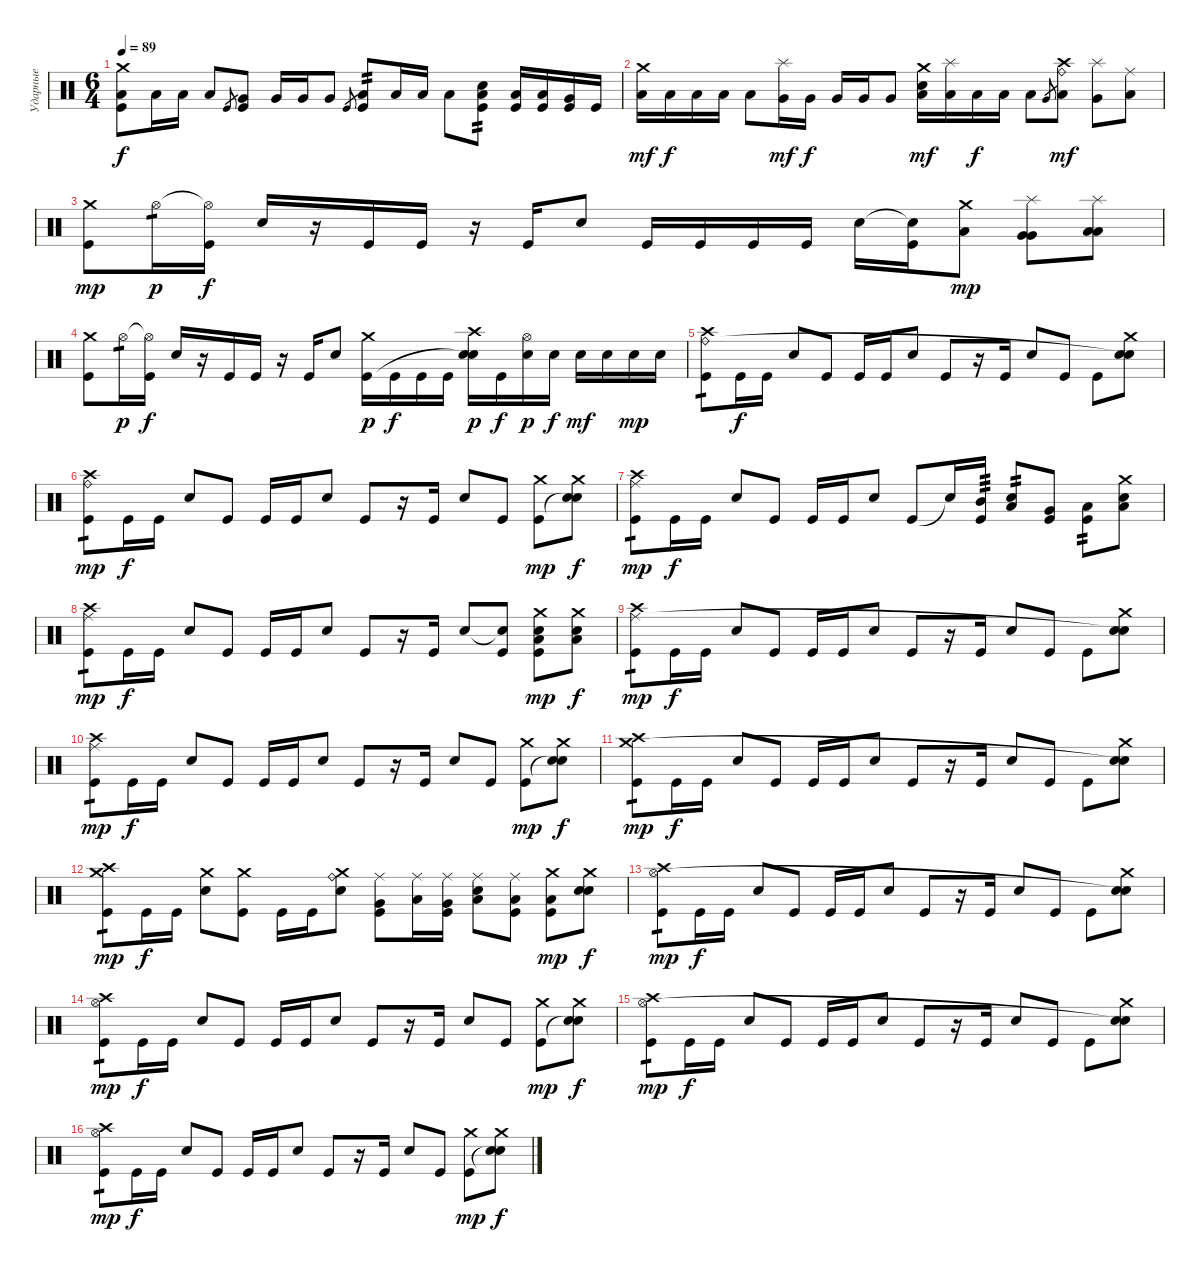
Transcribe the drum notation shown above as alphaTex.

\track ("Ударные" "Ударные") {instrument percussion}
\staff {score}
\articulation defaults
\ts (6 4)
\tempo 89
\clef neutral
\ks c
("Crash medium (hit)" "Low Tom (hit)" "Kick (hit)").8{dy f} "Low Tom (hit)".16 "Low Tom (hit)".16 "Low Tom (hit)".8 "Kick (hit)".8{gr} ("Very Low Tom (hit)" "Kick (hit)").8 "Very Low Tom (hit)".16 "Very Low Tom (hit)".16 "Very Low Tom (hit)".8 "Kick (hit)".8{gr} ("Low Floor Tom (hit)" "Kick (hit)").8{tp 2} "Low Floor Tom (hit)".16 "Low Floor Tom (hit)".16 "Low Floor Tom (hit)".8 ("Electric Snare (hit)" "Low Tom (hit)" "Kick (hit)").8{tp 2} ("Low Tom (hit)" "Kick (hit)").16 ("Low Tom (hit)" "Kick (hit)").16 ("Very Low Tom (hit)" "Kick (hit)").16 "Kick (hit)".16 |
("Crash medium (hit)" "Low Tom (hit)").16{dy mf} "Low Tom (hit)".16{dy f} "Low Tom (hit)".16 "Low Tom (hit)".16 "Low Tom (hit)".8 ("Splash (hit)" "Very Low Tom (hit)").16{dy mf} "Very Low Tom (hit)".16{dy f} "Very Low Tom (hit)".16 "Very Low Tom (hit)".16 "Very Low Tom (hit)".8 ("Crash medium (hit)" "Electric Snare (hit)" "Low Floor Tom (hit)").16{dy mf} ("Splash (hit)" "Low Floor Tom (hit)").16 "Low Floor Tom (hit)".16{dy f} "Low Floor Tom (hit)".16 "Low Floor Tom (hit)".8 "Very Low Tom (hit)".8{gr} ("Crash high (hit)" "Ride (bell)" "Low Tom (hit)").8{dy mf} ("Splash (hit)" "Very Low Tom (hit)").8 ("Ride (middle)" "Low Floor Tom (hit)").8 |
("Crash medium (hit)" "Kick (hit)").8{dy mp} "Hi-Hat (open)".16{tp 1 dy p} ("Hi-Hat (open)"{t} "Kick (hit)").16{dy f} "Electric Snare (hit)".16 r.16 "Kick (hit)".16 "Kick (hit)".16 r.16 "Kick (hit)".16 "Electric Snare (hit)".8 "Kick (hit)".16 "Kick (hit)".16 "Kick (hit)".16 "Kick (hit)".16 "Electric Snare (hit)".16 ("Snare (hit)"{t} "Kick (hit)").16 ("Crash medium (hit)" "Low Tom (hit)").8{dy mp} ("Splash (hit)" "Very Low Tom (hit)" "Very Low Tom (hit)").8 ("Splash (hit)" "Low Floor Tom (hit)" "Low Floor Tom (hit)").8 |
("Crash medium (hit)" "Kick (hit)").8 "Hi-Hat (open)".16{tp 1 dy p} ("Hi-Hat (open)"{t} "Kick (hit)").16{dy f} "Electric Snare (hit)".16 r.16 "Kick (hit)".16 "Kick (hit)".16 r.16 "Kick (hit)".16 "Electric Snare (hit)".8 ("Crash medium (hit)" "Kick (hit)").16{dy p} "Kick (hit)".16{dy f} "Kick (hit)".16 "Kick (hit)".16 ("Crash high (hit)" "Snare (hit)"{t} "Electric Snare (hit)").16{dy p} "Kick (hit)".16{dy f} ("Hi-Hat (open)" "Electric Snare (hit)").16{dy p} "Electric Snare (hit)".16{dy f} "Electric Snare (hit)".16{dy mf} "Electric Snare (hit)".16 "Electric Snare (hit)".16{dy mp} "Electric Snare (hit)".16 |
("Crash high (hit)" "Ride (bell)" "Kick (hit)").8{tp 1} "Kick (hit)".16{dy f} "Kick (hit)".16 "Electric Snare (hit)".8 "Kick (hit)".8 "Kick (hit)".16 "Kick (hit)".16 "Electric Snare (hit)".8 "Kick (hit)".8 r.16 "Kick (hit)".16 "Electric Snare (hit)".8 "Kick (hit)".8 "Kick (hit)".8 ("Crash medium (hit)" "Snare (hit)"{t} "Electric Snare (hit)").8 |
("Crash high (hit)" "Ride (bell)" "Kick (hit)").8{tp 1 dy mp} "Kick (hit)".16{dy f} "Kick (hit)".16 "Electric Snare (hit)".8 "Kick (hit)".8 "Kick (hit)".16 "Kick (hit)".16 "Electric Snare (hit)".8 "Kick (hit)".8 r.16 "Kick (hit)".16 "Electric Snare (hit)".8 "Kick (hit)".8 ("Crash medium (hit)" "Kick (hit)").8{dy mp} ("Crash medium (hit)" "Snare (hit)"{t} "Electric Snare (hit)").8{dy f} |
("Crash high (hit)" "Ride (middle)" "Kick (hit)").8{tp 1 dy mp} "Kick (hit)".16{dy f} "Kick (hit)".16 "Electric Snare (hit)".8 "Kick (hit)".8 "Kick (hit)".16 "Kick (hit)".16 "Electric Snare (hit)".8 "Kick (hit)".8 "Snare (hit)"{t}.16 ("Mid Tom (hit)" "Kick (hit)").16{tp 3} ("Low Tom (hit)" "Electric Snare (hit)").8{tp 2} ("Very Low Tom (hit)" "Kick (hit)").8 ("Low Floor Tom (hit)" "Kick (hit)").8{tp 2} ("Crash medium (hit)" "Low Floor Tom (hit)" "Electric Snare (hit)").8 |
("Crash high (hit)" "Ride (middle)" "Kick (hit)").8{tp 1 dy mp} "Kick (hit)".16{dy f} "Kick (hit)".16 "Electric Snare (hit)".8 "Kick (hit)".8 "Kick (hit)".16 "Kick (hit)".16 "Electric Snare (hit)".8 "Kick (hit)".8 r.16 "Kick (hit)".16 "Electric Snare (hit)".8 ("Snare (hit)"{t} "Kick (hit)").8 ("Crash medium (hit)" "Electric Snare (hit)" "Low Floor Tom (hit)" "Kick (hit)").8{dy mp} ("Crash medium (hit)" "Electric Snare (hit)" "Low Floor Tom (hit)").8{dy f} |
("Crash high (hit)" "Ride (middle)" "Kick (hit)").8{tp 1 dy mp} "Kick (hit)".16{dy f} "Kick (hit)".16 "Electric Snare (hit)".8 "Kick (hit)".8 "Kick (hit)".16 "Kick (hit)".16 "Electric Snare (hit)".8 "Kick (hit)".8 r.16 "Kick (hit)".16 "Electric Snare (hit)".8 "Kick (hit)".8 "Kick (hit)".8 ("Crash medium (hit)" "Snare (hit)"{t} "Electric Snare (hit)").8 |
("Crash high (hit)" "Ride (middle)" "Kick (hit)").8{tp 1 dy mp} "Kick (hit)".16{dy f} "Kick (hit)".16 "Electric Snare (hit)".8 "Kick (hit)".8 "Kick (hit)".16 "Kick (hit)".16 "Electric Snare (hit)".8 "Kick (hit)".8 r.16 "Kick (hit)".16 "Electric Snare (hit)".8 "Kick (hit)".8 ("Crash medium (hit)" "Kick (hit)").8{dy mp} ("Crash medium (hit)" "Snare (hit)"{t} "Electric Snare (hit)").8{dy f} |
("Crash high (hit)" "Crash medium (hit)" "Kick (hit)").8{tp 1 dy mp} "Kick (hit)".16{dy f} "Kick (hit)".16 "Electric Snare (hit)".8 "Kick (hit)".8 "Kick (hit)".16 "Kick (hit)".16 "Electric Snare (hit)".8 "Kick (hit)".8 r.16 "Kick (hit)".16 "Electric Snare (hit)".8 "Kick (hit)".8 "Kick (hit)".8 ("Crash medium (hit)" "Snare (hit)"{t} "Electric Snare (hit)").8 |
("Crash high (hit)" "Crash medium (hit)" "Kick (hit)").8{tp 1 dy mp} "Kick (hit)".16{dy f} "Kick (hit)".16 ("Crash medium (hit)" "Electric Snare (hit)").8 ("Crash medium (hit)" "Kick (hit)").8 "Kick (hit)".16 "Kick (hit)".16 ("Ride (bell)" "Crash medium (hit)" "Electric Snare (hit)").8 ("Ride (middle)" "Very Low Tom (hit)" "Kick (hit)").8 ("Ride (middle)" "Low Tom (hit)").16 ("Ride (middle)" "Very Low Tom (hit)" "Kick (hit)").16 ("Ride (middle)" "Low Floor Tom (hit)" "Electric Snare (hit)").8 ("Ride (middle)" "Low Floor Tom (hit)" "Kick (hit)").8 ("Crash medium (hit)" "Low Floor Tom (hit)" "Kick (hit)").8{dy mp} ("Crash medium (hit)" "Electric Snare (hit)" "Electric Snare (hit)").8{dy f} |
("Crash high (hit)" "Hi-Hat (open)" "Kick (hit)").8{tp 1 dy mp} "Kick (hit)".16{dy f} "Kick (hit)".16 "Electric Snare (hit)".8 "Kick (hit)".8 "Kick (hit)".16 "Kick (hit)".16 "Electric Snare (hit)".8 "Kick (hit)".8 r.16 "Kick (hit)".16 "Electric Snare (hit)".8 "Kick (hit)".8 "Kick (hit)".8 ("Crash medium (hit)" "Snare (hit)"{t} "Electric Snare (hit)").8 |
("Crash high (hit)" "Hi-Hat (open)" "Kick (hit)").8{tp 1 dy mp} "Kick (hit)".16{dy f} "Kick (hit)".16 "Electric Snare (hit)".8 "Kick (hit)".8 "Kick (hit)".16 "Kick (hit)".16 "Electric Snare (hit)".8 "Kick (hit)".8 r.16 "Kick (hit)".16 "Electric Snare (hit)".8 "Kick (hit)".8 ("Crash medium (hit)" "Kick (hit)").8{dy mp} ("Crash medium (hit)" "Snare (hit)"{t} "Electric Snare (hit)").8{dy f} |
("Crash high (hit)" "Hi-Hat (open)" "Kick (hit)").8{tp 1 dy mp} "Kick (hit)".16{dy f} "Kick (hit)".16 "Electric Snare (hit)".8 "Kick (hit)".8 "Kick (hit)".16 "Kick (hit)".16 "Electric Snare (hit)".8 "Kick (hit)".8 r.16 "Kick (hit)".16 "Electric Snare (hit)".8 "Kick (hit)".8 "Kick (hit)".8 ("Crash medium (hit)" "Snare (hit)"{t} "Electric Snare (hit)").8 |
("Crash high (hit)" "Hi-Hat (open)" "Kick (hit)").8{tp 1 dy mp} "Kick (hit)".16{dy f} "Kick (hit)".16 "Electric Snare (hit)".8 "Kick (hit)".8 "Kick (hit)".16 "Kick (hit)".16 "Electric Snare (hit)".8 "Kick (hit)".8 r.16 "Kick (hit)".16 "Electric Snare (hit)".8 "Kick (hit)".8 ("Crash medium (hit)" "Kick (hit)").8{dy mp} ("Crash medium (hit)" "Snare (hit)"{t} "Electric Snare (hit)").8{dy f}
